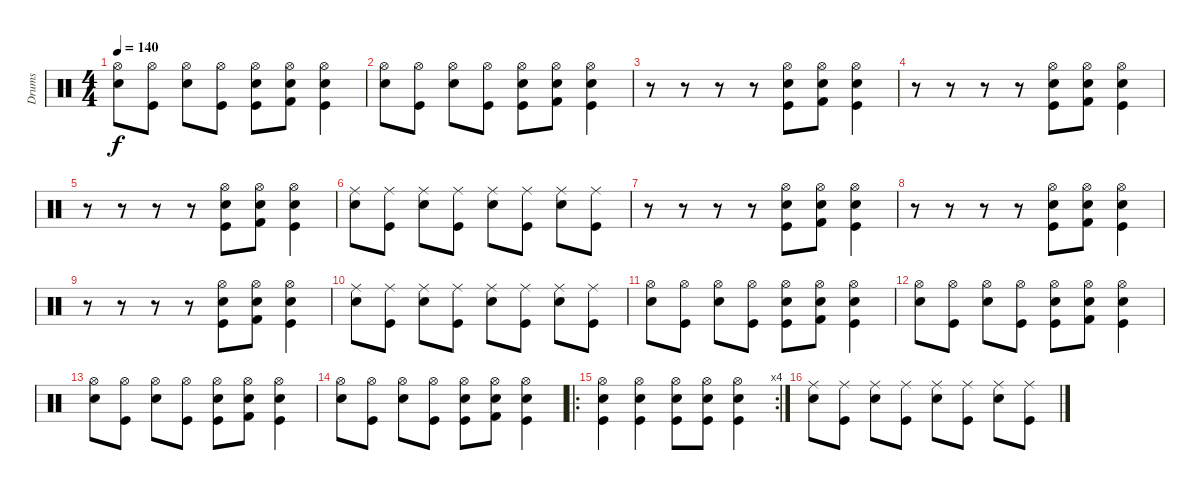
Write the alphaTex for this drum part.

\track ("Drums" "Drums") {instrument percussion}
\staff {score}
\articulation defaults
\ts (4 4)
\tempo 140
\clef neutral
\ks c
("Hi-Hat (open)" "Snare (hit) 2").8{dy f} ("Hi-Hat (open)" "Kick (hit)").8 ("Hi-Hat (open)" "Snare (hit) 2").8 ("Hi-Hat (open)" "Kick (hit)").8 ("Hi-Hat (open)" "Snare (hit) 2" "Kick (hit)").8 ("Hi-Hat (open)" "Snare (hit) 2" "Kick (hit) 2").8 ("Hi-Hat (open)" "Kick (hit)" "Snare (hit) 2").4 |
("Hi-Hat (open)" "Snare (hit) 2").8 ("Hi-Hat (open)" "Kick (hit)").8 ("Hi-Hat (open)" "Snare (hit) 2").8 ("Hi-Hat (open)" "Kick (hit)").8 ("Hi-Hat (open)" "Snare (hit) 2" "Kick (hit)").8 ("Hi-Hat (open)" "Snare (hit) 2" "Kick (hit) 2").8 ("Hi-Hat (open)" "Kick (hit)" "Snare (hit) 2").4 |
r.8 r.8 r.8 r.8 ("Hi-Hat (open)" "Snare (hit) 2" "Kick (hit)").8 ("Hi-Hat (open)" "Snare (hit) 2" "Kick (hit) 2").8 ("Hi-Hat (open)" "Kick (hit)" "Snare (hit) 2").4 |
r.8 r.8 r.8 r.8 ("Hi-Hat (open)" "Snare (hit) 2" "Kick (hit)").8 ("Hi-Hat (open)" "Snare (hit) 2" "Kick (hit) 2").8 ("Hi-Hat (open)" "Kick (hit)" "Snare (hit) 2").4 |
r.8 r.8 r.8 r.8 ("Hi-Hat (open)" "Snare (hit) 2" "Kick (hit)").8 ("Hi-Hat (open)" "Snare (hit) 2" "Kick (hit) 2").8 ("Hi-Hat (open)" "Kick (hit)" "Snare (hit) 2").4 |
("Ride (middle)" "Snare (hit) 2").8 ("Ride (middle)" "Kick (hit)").8 ("Ride (middle)" "Snare (hit) 2").8 ("Ride (middle)" "Kick (hit)").8 ("Ride (middle)" "Snare (hit) 2").8 ("Ride (middle)" "Kick (hit)").8 ("Ride (middle)" "Snare (hit) 2").8 ("Ride (middle)" "Kick (hit)").8 |
r.8 r.8 r.8 r.8 ("Hi-Hat (open)" "Snare (hit) 2" "Kick (hit)").8 ("Hi-Hat (open)" "Snare (hit) 2" "Kick (hit) 2").8 ("Hi-Hat (open)" "Kick (hit)" "Snare (hit) 2").4 |
r.8 r.8 r.8 r.8 ("Hi-Hat (open)" "Snare (hit) 2" "Kick (hit)").8 ("Hi-Hat (open)" "Snare (hit) 2" "Kick (hit) 2").8 ("Hi-Hat (open)" "Kick (hit)" "Snare (hit) 2").4 |
r.8 r.8 r.8 r.8 ("Hi-Hat (open)" "Snare (hit) 2" "Kick (hit)").8 ("Hi-Hat (open)" "Snare (hit) 2" "Kick (hit) 2").8 ("Hi-Hat (open)" "Kick (hit)" "Snare (hit) 2").4 |
("Ride (middle)" "Snare (hit) 2").8 ("Ride (middle)" "Kick (hit)").8 ("Ride (middle)" "Snare (hit) 2").8 ("Ride (middle)" "Kick (hit)").8 ("Ride (middle)" "Snare (hit) 2").8 ("Ride (middle)" "Kick (hit)").8 ("Ride (middle)" "Snare (hit) 2").8 ("Ride (middle)" "Kick (hit)").8 |
("Hi-Hat (open)" "Snare (hit) 2").8 ("Hi-Hat (open)" "Kick (hit)").8 ("Hi-Hat (open)" "Snare (hit) 2").8 ("Hi-Hat (open)" "Kick (hit)").8 ("Hi-Hat (open)" "Snare (hit) 2" "Kick (hit)").8 ("Hi-Hat (open)" "Snare (hit) 2" "Kick (hit) 2").8 ("Hi-Hat (open)" "Kick (hit)" "Snare (hit) 2").4 |
("Hi-Hat (open)" "Snare (hit) 2").8 ("Hi-Hat (open)" "Kick (hit)").8 ("Hi-Hat (open)" "Snare (hit) 2").8 ("Hi-Hat (open)" "Kick (hit)").8 ("Hi-Hat (open)" "Snare (hit) 2" "Kick (hit)").8 ("Hi-Hat (open)" "Snare (hit) 2" "Kick (hit) 2").8 ("Hi-Hat (open)" "Kick (hit)" "Snare (hit) 2").4 |
("Hi-Hat (open)" "Snare (hit) 2").8 ("Hi-Hat (open)" "Kick (hit)").8 ("Hi-Hat (open)" "Snare (hit) 2").8 ("Hi-Hat (open)" "Kick (hit)").8 ("Hi-Hat (open)" "Snare (hit) 2" "Kick (hit)").8 ("Hi-Hat (open)" "Snare (hit) 2" "Kick (hit) 2").8 ("Hi-Hat (open)" "Kick (hit)" "Snare (hit) 2").4 |
("Hi-Hat (open)" "Snare (hit) 2").8 ("Hi-Hat (open)" "Kick (hit)").8 ("Hi-Hat (open)" "Snare (hit) 2").8 ("Hi-Hat (open)" "Kick (hit)").8 ("Hi-Hat (open)" "Snare (hit) 2" "Kick (hit)").8 ("Hi-Hat (open)" "Snare (hit) 2" "Kick (hit) 2").8 ("Hi-Hat (open)" "Kick (hit)" "Snare (hit) 2").4 |
\ro
\rc 4
("Hi-Hat (open)" "Snare (hit) 2" "Kick (hit)").4 ("Hi-Hat (open)" "Snare (hit) 2" "Kick (hit)").4 ("Hi-Hat (open)" "Snare (hit) 2" "Kick (hit)").8 ("Hi-Hat (open)" "Snare (hit) 2" "Kick (hit)").8 ("Hi-Hat (open)" "Snare (hit) 2" "Kick (hit)").4 |
("Ride (middle)" "Snare (hit) 2").8 ("Ride (middle)" "Kick (hit)").8 ("Ride (middle)" "Snare (hit) 2").8 ("Ride (middle)" "Kick (hit)").8 ("Ride (middle)" "Snare (hit) 2").8 ("Ride (middle)" "Kick (hit)").8 ("Ride (middle)" "Snare (hit) 2").8 ("Ride (middle)" "Kick (hit)").8
